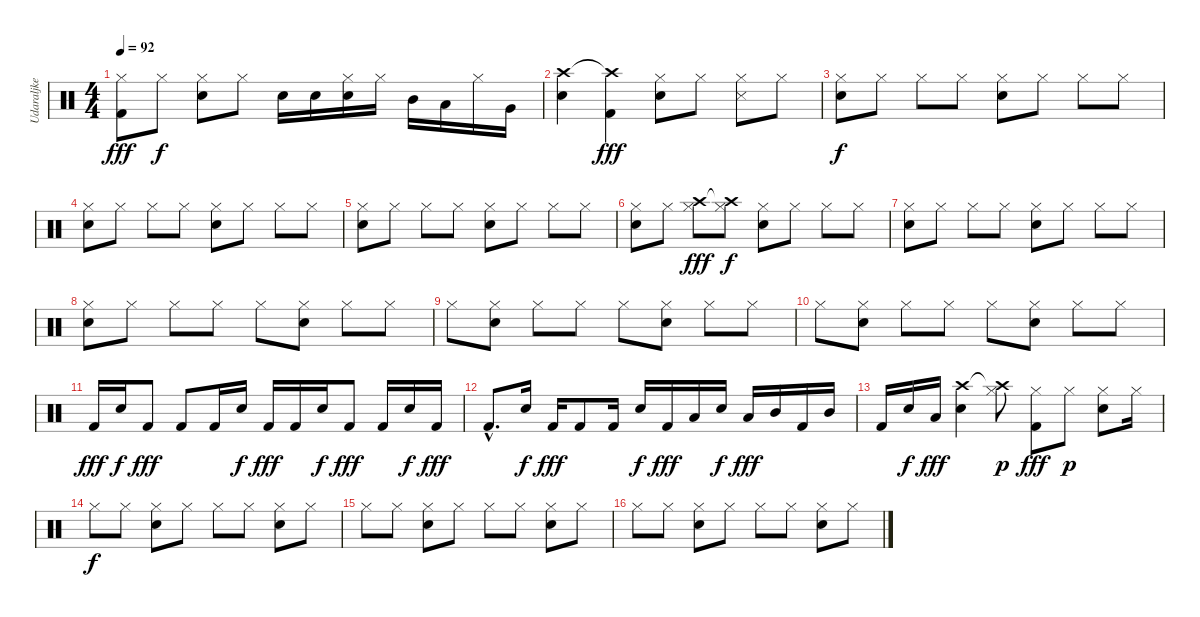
\track ("Udaraljke" "Udaraljke") {instrument percussion}
\staff {score}
\articulation defaults
\ts (4 4)
\tempo 92
\clef neutral
\ks c
("Hi-Hat (closed)" "Kick (hit) 2").8{dy fff} "Hi-Hat (closed)".8{dy f} ("Hi-Hat (closed)" "Electric Snare (hit)").8 "Hi-Hat (closed)".8 "Electric Snare (hit)".16 "Electric Snare (hit)".16 ("Hi-Hat (closed)" "Electric Snare (hit)").16 "Hi-Hat (closed)".16 "Mid Tom (hit)".16 "Low Floor Tom (hit)".16 "Hi-Hat (closed)".16 "Very Low Tom (hit)".16 |
("Crash high (hit)" "Electric Snare (hit)").4 ("Crash high (hit)"{t} "Kick (hit) 2").4{dy fff} ("Hi-Hat (closed)" "Electric Snare (hit)").8 "Hi-Hat (closed)".8 ("Hi-Hat (closed)" "Snare (side stick) 3").8 "Hi-Hat (closed)".8 |
("Hi-Hat (closed)" "Electric Snare (hit)").8{dy f} "Hi-Hat (closed)".8 "Hi-Hat (closed)".8 "Hi-Hat (closed)".8 ("Hi-Hat (closed)" "Electric Snare (hit)").8 "Hi-Hat (closed)".8 "Hi-Hat (closed)".8 "Hi-Hat (closed)".8 |
("Hi-Hat (closed)" "Electric Snare (hit)").8 "Hi-Hat (closed)".8 "Hi-Hat (closed)".8 "Hi-Hat (closed)".8 ("Hi-Hat (closed)" "Electric Snare (hit)").8 "Hi-Hat (closed)".8 "Hi-Hat (closed)".8 "Hi-Hat (closed)".8 |
("Hi-Hat (closed)" "Electric Snare (hit)").8 "Hi-Hat (closed)".8 "Hi-Hat (closed)".8 "Hi-Hat (closed)".8 ("Hi-Hat (closed)" "Electric Snare (hit)").8 "Hi-Hat (closed)".8 "Hi-Hat (closed)".8 "Hi-Hat (closed)".8 |
("Hi-Hat (closed)" "Electric Snare (hit)").8 "Hi-Hat (closed)".8 ("Hi-Hat (closed)" "Crash high (hit)").8{dy fff} ("Hi-Hat (closed)" "Crash high (hit)"{t}).8{dy f} ("Hi-Hat (closed)" "Electric Snare (hit)").8 "Hi-Hat (closed)".8 "Hi-Hat (closed)".8 "Hi-Hat (closed)".8 |
("Hi-Hat (closed)" "Electric Snare (hit)").8 "Hi-Hat (closed)".8 "Hi-Hat (closed)".8 "Hi-Hat (closed)".8 ("Hi-Hat (closed)" "Electric Snare (hit)").8 "Hi-Hat (closed)".8 "Hi-Hat (closed)".8 "Hi-Hat (closed)".8 |
("Hi-Hat (closed)" "Electric Snare (hit)").8 "Hi-Hat (closed)".8 "Hi-Hat (closed)".8 "Hi-Hat (closed)".8 "Hi-Hat (closed)".8 ("Hi-Hat (closed)" "Electric Snare (hit)").8 "Hi-Hat (closed)".8 "Hi-Hat (closed)".8 |
"Hi-Hat (closed)".8 ("Hi-Hat (closed)" "Electric Snare (hit)").8 "Hi-Hat (closed)".8 "Hi-Hat (closed)".8 "Hi-Hat (closed)".8 ("Hi-Hat (closed)" "Electric Snare (hit)").8 "Hi-Hat (closed)".8 "Hi-Hat (closed)".8 |
"Hi-Hat (closed)".8 ("Hi-Hat (closed)" "Electric Snare (hit)").8 "Hi-Hat (closed)".8 "Hi-Hat (closed)".8 "Hi-Hat (closed)".8 ("Hi-Hat (closed)" "Electric Snare (hit)").8 "Hi-Hat (closed)".8 "Hi-Hat (closed)".8 |
"Kick (hit) 2".16{dy fff} "Electric Snare (hit)".16{dy f} "Kick (hit) 2".8{dy fff} "Kick (hit) 2".8 "Kick (hit) 2".16 "Electric Snare (hit)".16{dy f} "Kick (hit) 2".16{dy fff} "Kick (hit) 2".16 "Electric Snare (hit)".16{dy f} "Kick (hit) 2".8{dy fff} "Kick (hit) 2".16 "Electric Snare (hit)".16{dy f} "Kick (hit) 2".16{dy fff} |
"Kick (hit) 2"{hac}.8{d} "Electric Snare (hit)".16{dy f} "Kick (hit) 2".16{dy fff} "Kick (hit) 2".8 "Kick (hit) 2".16 "Electric Snare (hit)".16{dy f} "Kick (hit) 2".16{dy fff} "Low Tom (hit)".16 "Electric Snare (hit)".16{dy f} "Low Floor Tom (hit)".16{dy fff} "Mid Tom (hit)".16 "Kick (hit) 2".16 "Mid Tom (hit)".16 |
"Kick (hit) 2".16 "Electric Snare (hit)".16{dy f} "Low Floor Tom (hit)".16{dy fff} ("Electric Snare (hit)" "Crash high (hit)").4 ("Hi-Hat (closed)" "Crash high (hit)"{t}).8{dy p} ("Hi-Hat (closed)" "Kick (hit) 2").8{dy fff} "Hi-Hat (closed)".8{dy p} ("Hi-Hat (closed)" "Electric Snare (hit)").8 "Hi-Hat (closed)".16 |
"Hi-Hat (closed)".8{dy f} "Hi-Hat (closed)".8 ("Hi-Hat (closed)" "Electric Snare (hit)").8 "Hi-Hat (closed)".8 "Hi-Hat (closed)".8 "Hi-Hat (closed)".8 ("Hi-Hat (closed)" "Electric Snare (hit)").8 "Hi-Hat (closed)".8 |
"Hi-Hat (closed)".8 "Hi-Hat (closed)".8 ("Hi-Hat (closed)" "Electric Snare (hit)").8 "Hi-Hat (closed)".8 "Hi-Hat (closed)".8 "Hi-Hat (closed)".8 ("Hi-Hat (closed)" "Electric Snare (hit)").8 "Hi-Hat (closed)".8 |
"Hi-Hat (closed)".8 "Hi-Hat (closed)".8 ("Hi-Hat (closed)" "Electric Snare (hit)").8 "Hi-Hat (closed)".8 "Hi-Hat (closed)".8 "Hi-Hat (closed)".8 ("Hi-Hat (closed)" "Electric Snare (hit)").8 "Hi-Hat (closed)".8
